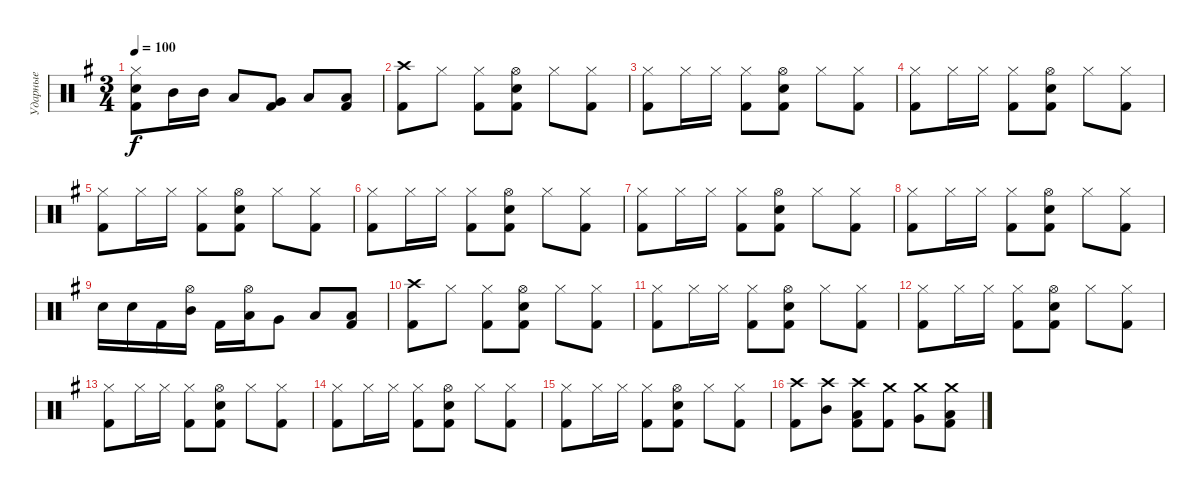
\track ("Ударные" "Ударные") {instrument percussion}
\staff {score}
\articulation defaults
\ts (3 4)
\tempo 100
\clef neutral
\ks eminor
("Snare (hit) 2" "Kick (hit) 2" "Hi-Hat (closed)").8{dy f} "Mid Tom (hit)".16 "Mid Tom (hit)".16 "Low Tom (hit)".8 ("Very Low Tom (hit)" "Kick (hit) 2").8 "Low Floor Tom (hit)".8 ("Low Floor Tom (hit)" "Kick (hit) 2").8 |
("Kick (hit) 2" "Crash high (hit)").8 "Hi-Hat (closed)".8 ("Kick (hit) 2" "Hi-Hat (closed)").8 ("Snare (hit) 2" "Kick (hit) 2" "Hi-Hat (open)").8 "Hi-Hat (closed)".8 ("Kick (hit) 2" "Hi-Hat (closed)").8 |
("Kick (hit) 2" "Hi-Hat (closed)").8 "Hi-Hat (closed)".16 "Hi-Hat (closed)".16 ("Kick (hit) 2" "Hi-Hat (closed)").8 ("Snare (hit) 2" "Kick (hit) 2" "Hi-Hat (open)").8 "Hi-Hat (closed)".8 ("Kick (hit) 2" "Hi-Hat (closed)").8 |
("Kick (hit) 2" "Hi-Hat (closed)").8 "Hi-Hat (closed)".16 "Hi-Hat (closed)".16 ("Kick (hit) 2" "Hi-Hat (closed)").8 ("Snare (hit) 2" "Kick (hit) 2" "Hi-Hat (open)").8 "Hi-Hat (closed)".8 ("Kick (hit) 2" "Hi-Hat (closed)").8 |
("Kick (hit) 2" "Hi-Hat (closed)").8 "Hi-Hat (closed)".16 "Hi-Hat (closed)".16 ("Kick (hit) 2" "Hi-Hat (closed)").8 ("Snare (hit) 2" "Kick (hit) 2" "Hi-Hat (open)").8 "Hi-Hat (closed)".8 ("Kick (hit) 2" "Hi-Hat (closed)").8 |
("Kick (hit) 2" "Hi-Hat (closed)").8 "Hi-Hat (closed)".16 "Hi-Hat (closed)".16 ("Kick (hit) 2" "Hi-Hat (closed)").8 ("Snare (hit) 2" "Kick (hit) 2" "Hi-Hat (open)").8 "Hi-Hat (closed)".8 ("Kick (hit) 2" "Hi-Hat (closed)").8 |
("Kick (hit) 2" "Hi-Hat (closed)").8 "Hi-Hat (closed)".16 "Hi-Hat (closed)".16 ("Kick (hit) 2" "Hi-Hat (closed)").8 ("Snare (hit) 2" "Kick (hit) 2" "Hi-Hat (open)").8 "Hi-Hat (closed)".8 ("Kick (hit) 2" "Hi-Hat (closed)").8 |
("Kick (hit) 2" "Hi-Hat (closed)").8 "Hi-Hat (closed)".16 "Hi-Hat (closed)".16 ("Kick (hit) 2" "Hi-Hat (closed)").8 ("Snare (hit) 2" "Kick (hit) 2" "Hi-Hat (open)").8 "Hi-Hat (closed)".8 ("Kick (hit) 2" "Hi-Hat (closed)").8 |
"Snare (hit) 2".16 "Snare (hit) 2".16 "Kick (hit) 2".16 ("Mid Tom (hit)" "Hi-Hat (open)").16 "Kick (hit) 2".16 ("Low Tom (hit)" "Hi-Hat (open)").16 "Very Low Tom (hit)".8 "Low Floor Tom (hit)".8 ("Low Floor Tom (hit)" "Kick (hit) 2").8 |
("Kick (hit) 2" "Crash high (hit)").8 "Hi-Hat (closed)".8 ("Kick (hit) 2" "Hi-Hat (closed)").8 ("Snare (hit) 2" "Kick (hit) 2" "Hi-Hat (open)").8 "Hi-Hat (closed)".8 ("Kick (hit) 2" "Hi-Hat (closed)").8 |
("Kick (hit) 2" "Hi-Hat (closed)").8 "Hi-Hat (closed)".16 "Hi-Hat (closed)".16 ("Kick (hit) 2" "Hi-Hat (closed)").8 ("Snare (hit) 2" "Kick (hit) 2" "Hi-Hat (open)").8 "Hi-Hat (closed)".8 ("Kick (hit) 2" "Hi-Hat (closed)").8 |
("Kick (hit) 2" "Hi-Hat (closed)").8 "Hi-Hat (closed)".16 "Hi-Hat (closed)".16 ("Kick (hit) 2" "Hi-Hat (closed)").8 ("Snare (hit) 2" "Kick (hit) 2" "Hi-Hat (open)").8 "Hi-Hat (closed)".8 ("Kick (hit) 2" "Hi-Hat (closed)").8 |
("Kick (hit) 2" "Hi-Hat (closed)").8 "Hi-Hat (closed)".16 "Hi-Hat (closed)".16 ("Kick (hit) 2" "Hi-Hat (closed)").8 ("Snare (hit) 2" "Kick (hit) 2" "Hi-Hat (open)").8 "Hi-Hat (closed)".8 ("Kick (hit) 2" "Hi-Hat (closed)").8 |
("Kick (hit) 2" "Hi-Hat (closed)").8 "Hi-Hat (closed)".16 "Hi-Hat (closed)".16 ("Kick (hit) 2" "Hi-Hat (closed)").8 ("Snare (hit) 2" "Kick (hit) 2" "Hi-Hat (open)").8 "Hi-Hat (closed)".8 ("Kick (hit) 2" "Hi-Hat (closed)").8 |
("Kick (hit) 2" "Hi-Hat (closed)").8 "Hi-Hat (closed)".16 "Hi-Hat (closed)".16 ("Kick (hit) 2" "Hi-Hat (closed)").8 ("Snare (hit) 2" "Kick (hit) 2" "Hi-Hat (open)").8 "Hi-Hat (closed)".8 ("Kick (hit) 2" "Hi-Hat (closed)").8 |
("Kick (hit) 2" "Crash high (hit)").8 ("Mid Tom (hit)" "Crash high (hit)").8 ("Low Tom (hit)" "Kick (hit) 2" "Crash high (hit)").8 ("Kick (hit) 2" "Crash medium (hit)").8 ("Very Low Tom (hit)" "Crash medium (hit)").8 ("Low Floor Tom (hit)" "Kick (hit) 2" "Crash medium (hit)").8
